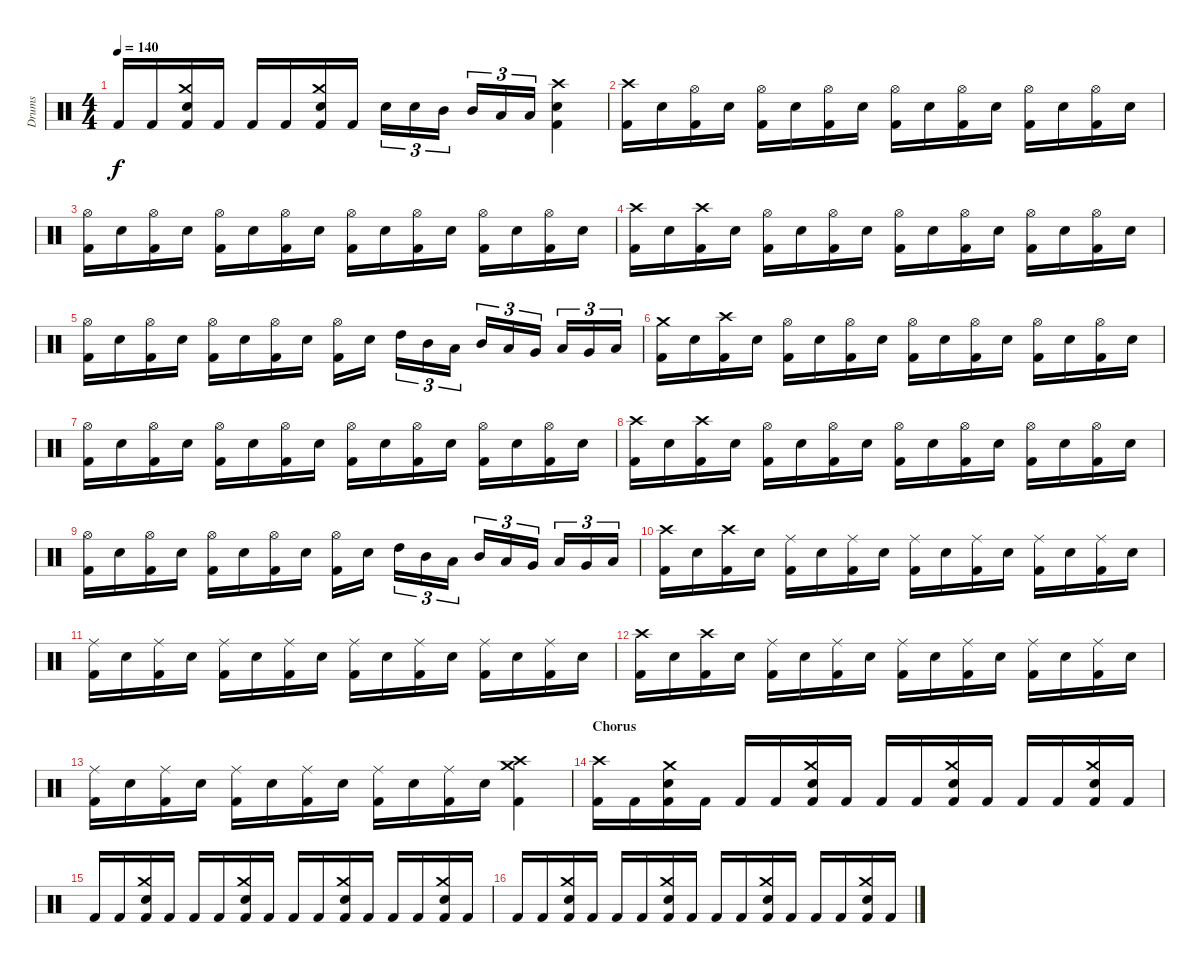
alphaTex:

\track ("Drums" "Drums") {instrument percussion}
\staff {score}
\articulation defaults
\ts (4 4)
\tempo 140
\clef neutral
\ks c "Kick (hit) 2".16{dy f} "Kick (hit) 2".16
("Crash medium (hit)" "Electric Snare (hit)" "Kick (hit) 2").16 "Kick (hit) 2".16 "Kick (hit) 2".16 "Kick (hit) 2".16 ("Crash medium (hit)" "Electric Snare (hit)" "Kick (hit) 2").16 "Kick (hit) 2".16 "Electric Snare (hit)".16{tu (3 2)} "Electric Snare (hit)".16{tu (3 2)} "Mid Tom (hit)".16{tu (3 2)} "Mid Tom (hit)".16{tu (3 2)} "Low Tom (hit)".16{tu (3 2)} "Low Tom (hit)".16{tu (3 2)} ("Crash high (hit)" "Electric Snare (hit)" "Kick (hit) 2").4 |
("Crash high (hit)" "Kick (hit) 2").16 "Electric Snare (hit)".16 ("Hi-Hat (open)" "Kick (hit) 2").16 "Electric Snare (hit)".16 ("Hi-Hat (open)" "Kick (hit) 2").16 "Electric Snare (hit)".16 ("Hi-Hat (open)" "Kick (hit) 2").16 "Electric Snare (hit)".16 ("Hi-Hat (open)" "Kick (hit) 2").16 "Electric Snare (hit)".16 ("Hi-Hat (open)" "Kick (hit) 2").16 "Electric Snare (hit)".16 ("Hi-Hat (open)" "Kick (hit) 2").16 "Electric Snare (hit)".16 ("Hi-Hat (open)" "Kick (hit) 2").16 "Electric Snare (hit)".16 |
("Hi-Hat (open)" "Kick (hit) 2").16 "Electric Snare (hit)".16 ("Hi-Hat (open)" "Kick (hit) 2").16 "Electric Snare (hit)".16 ("Hi-Hat (open)" "Kick (hit) 2").16 "Electric Snare (hit)".16 ("Hi-Hat (open)" "Kick (hit) 2").16 "Electric Snare (hit)".16 ("Hi-Hat (open)" "Kick (hit) 2").16 "Electric Snare (hit)".16 ("Hi-Hat (open)" "Kick (hit) 2").16 "Electric Snare (hit)".16 ("Hi-Hat (open)" "Kick (hit) 2").16 "Electric Snare (hit)".16 ("Hi-Hat (open)" "Kick (hit) 2").16 "Electric Snare (hit)".16 |
("Crash high (hit)" "Kick (hit) 2").16 "Electric Snare (hit)".16 ("Crash high (hit)" "Kick (hit) 2").16 "Electric Snare (hit)".16 ("Hi-Hat (open)" "Kick (hit) 2").16 "Electric Snare (hit)".16 ("Hi-Hat (open)" "Kick (hit) 2").16 "Electric Snare (hit)".16 ("Hi-Hat (open)" "Kick (hit) 2").16 "Electric Snare (hit)".16 ("Hi-Hat (open)" "Kick (hit) 2").16 "Electric Snare (hit)".16 ("Hi-Hat (open)" "Kick (hit) 2").16 "Electric Snare (hit)".16 ("Hi-Hat (open)" "Kick (hit) 2").16 "Electric Snare (hit)".16 |
("Hi-Hat (open)" "Kick (hit) 2").16 "Electric Snare (hit)".16 ("Hi-Hat (open)" "Kick (hit) 2").16 "Electric Snare (hit)".16 ("Hi-Hat (open)" "Kick (hit) 2").16 "Electric Snare (hit)".16 ("Hi-Hat (open)" "Kick (hit) 2").16 "Electric Snare (hit)".16 ("Hi-Hat (open)" "Kick (hit) 2").16 "Electric Snare (hit)".16 "High Tom (hit)".16{tu (3 2)} "Mid Tom (hit)".16{tu (3 2)} "Low Tom (hit)".16{tu (3 2)} "Mid Tom (hit)".16{tu (3 2)} "Low Tom (hit)".16{tu (3 2)} "Very Low Tom (hit)".16{tu (3 2)} "Low Tom (hit)".16{tu (3 2)} "Very Low Tom (hit)".16{tu (3 2)} "Low Floor Tom (hit)".16{tu (3 2)} |
("Crash medium (hit)" "Kick (hit) 2").16 "Electric Snare (hit)".16 ("Crash high (hit)" "Kick (hit) 2").16 "Electric Snare (hit)".16 ("Hi-Hat (open)" "Kick (hit) 2").16 "Electric Snare (hit)".16 ("Hi-Hat (open)" "Kick (hit) 2").16 "Electric Snare (hit)".16 ("Hi-Hat (open)" "Kick (hit) 2").16 "Electric Snare (hit)".16 ("Hi-Hat (open)" "Kick (hit) 2").16 "Electric Snare (hit)".16 ("Hi-Hat (open)" "Kick (hit) 2").16 "Electric Snare (hit)".16 ("Hi-Hat (open)" "Kick (hit) 2").16 "Electric Snare (hit)".16 |
("Hi-Hat (open)" "Kick (hit) 2").16 "Electric Snare (hit)".16 ("Hi-Hat (open)" "Kick (hit) 2").16 "Electric Snare (hit)".16 ("Hi-Hat (open)" "Kick (hit) 2").16 "Electric Snare (hit)".16 ("Hi-Hat (open)" "Kick (hit) 2").16 "Electric Snare (hit)".16 ("Hi-Hat (open)" "Kick (hit) 2").16 "Electric Snare (hit)".16 ("Hi-Hat (open)" "Kick (hit) 2").16 "Electric Snare (hit)".16 ("Hi-Hat (open)" "Kick (hit) 2").16 "Electric Snare (hit)".16 ("Hi-Hat (open)" "Kick (hit) 2").16 "Electric Snare (hit)".16 |
("Crash high (hit)" "Kick (hit) 2").16 "Electric Snare (hit)".16 ("Crash high (hit)" "Kick (hit) 2").16 "Electric Snare (hit)".16 ("Hi-Hat (open)" "Kick (hit) 2").16 "Electric Snare (hit)".16 ("Hi-Hat (open)" "Kick (hit) 2").16 "Electric Snare (hit)".16 ("Hi-Hat (open)" "Kick (hit) 2").16 "Electric Snare (hit)".16 ("Hi-Hat (open)" "Kick (hit) 2").16 "Electric Snare (hit)".16 ("Hi-Hat (open)" "Kick (hit) 2").16 "Electric Snare (hit)".16 ("Hi-Hat (open)" "Kick (hit) 2").16 "Electric Snare (hit)".16 |
("Hi-Hat (open)" "Kick (hit) 2").16 "Electric Snare (hit)".16 ("Hi-Hat (open)" "Kick (hit) 2").16 "Electric Snare (hit)".16 ("Hi-Hat (open)" "Kick (hit) 2").16 "Electric Snare (hit)".16 ("Hi-Hat (open)" "Kick (hit) 2").16 "Electric Snare (hit)".16 ("Hi-Hat (open)" "Kick (hit) 2").16 "Electric Snare (hit)".16 "High Tom (hit)".16{tu (3 2)} "Mid Tom (hit)".16{tu (3 2)} "Low Tom (hit)".16{tu (3 2)} "Mid Tom (hit)".16{tu (3 2)} "Low Tom (hit)".16{tu (3 2)} "Very Low Tom (hit)".16{tu (3 2)} "Low Tom (hit)".16{tu (3 2)} "Very Low Tom (hit)".16{tu (3 2)} "Low Floor Tom (hit)".16{tu (3 2)} |
("Crash high (hit)" "Kick (hit) 2").16 "Electric Snare (hit)".16 ("Crash high (hit)" "Kick (hit) 2").16 "Electric Snare (hit)".16 ("Ride (middle)" "Kick (hit) 2").16 "Electric Snare (hit)".16 ("Ride (middle)" "Kick (hit) 2").16 "Electric Snare (hit)".16 ("Ride (middle)" "Kick (hit) 2").16 "Electric Snare (hit)".16 ("Ride (middle)" "Kick (hit) 2").16 "Electric Snare (hit)".16 ("Ride (middle)" "Kick (hit) 2").16 "Electric Snare (hit)".16 ("Ride (middle)" "Kick (hit) 2").16 "Electric Snare (hit)".16 |
("Ride (middle)" "Kick (hit) 2").16 "Electric Snare (hit)".16 ("Ride (middle)" "Kick (hit) 2").16 "Electric Snare (hit)".16 ("Ride (middle)" "Kick (hit) 2").16 "Electric Snare (hit)".16 ("Ride (middle)" "Kick (hit) 2").16 "Electric Snare (hit)".16 ("Ride (middle)" "Kick (hit) 2").16 "Electric Snare (hit)".16 ("Ride (middle)" "Kick (hit) 2").16 "Electric Snare (hit)".16 ("Ride (middle)" "Kick (hit) 2").16 "Electric Snare (hit)".16 ("Ride (middle)" "Kick (hit) 2").16 "Electric Snare (hit)".16 |
("Crash high (hit)" "Kick (hit) 2").16 "Electric Snare (hit)".16 ("Crash high (hit)" "Kick (hit) 2").16 "Electric Snare (hit)".16 ("Ride (middle)" "Kick (hit) 2").16 "Electric Snare (hit)".16 ("Ride (middle)" "Kick (hit) 2").16 "Electric Snare (hit)".16 ("Ride (middle)" "Kick (hit) 2").16 "Electric Snare (hit)".16 ("Ride (middle)" "Kick (hit) 2").16 "Electric Snare (hit)".16 ("Ride (middle)" "Kick (hit) 2").16 "Electric Snare (hit)".16 ("Ride (middle)" "Kick (hit) 2").16 "Electric Snare (hit)".16 |
("Ride (middle)" "Kick (hit) 2").16 "Electric Snare (hit)".16 ("Ride (middle)" "Kick (hit) 2").16 "Electric Snare (hit)".16 ("Ride (middle)" "Kick (hit) 2").16 "Electric Snare (hit)".16 ("Ride (middle)" "Kick (hit) 2").16 "Electric Snare (hit)".16 ("Ride (middle)" "Kick (hit) 2").16 "Electric Snare (hit)".16 ("Ride (middle)" "Kick (hit) 2").16 "Electric Snare (hit)".16 ("Crash high (hit)" "Crash medium (hit)" "Kick (hit) 2").4 |
\section ("" "Chorus")
("Crash high (hit)" "Kick (hit) 2").16 "Kick (hit) 2".16 ("Crash medium (hit)" "Electric Snare (hit)" "Kick (hit) 2").16 "Kick (hit) 2".16 "Kick (hit) 2".16 "Kick (hit) 2".16 ("Crash medium (hit)" "Electric Snare (hit)" "Kick (hit) 2").16 "Kick (hit) 2".16 "Kick (hit) 2".16 "Kick (hit) 2".16 ("Crash medium (hit)" "Electric Snare (hit)" "Kick (hit) 2").16 "Kick (hit) 2".16 "Kick (hit) 2".16 "Kick (hit) 2".16 ("Crash medium (hit)" "Electric Snare (hit)" "Kick (hit) 2").16 "Kick (hit) 2".16 |
"Kick (hit) 2".16 "Kick (hit) 2".16 ("Crash medium (hit)" "Electric Snare (hit)" "Kick (hit) 2").16 "Kick (hit) 2".16 "Kick (hit) 2".16 "Kick (hit) 2".16 ("Crash medium (hit)" "Electric Snare (hit)" "Kick (hit) 2").16 "Kick (hit) 2".16 "Kick (hit) 2".16 "Kick (hit) 2".16 ("Crash medium (hit)" "Electric Snare (hit)" "Kick (hit) 2").16 "Kick (hit) 2".16 "Kick (hit) 2".16 "Kick (hit) 2".16 ("Crash medium (hit)" "Electric Snare (hit)" "Kick (hit) 2").16 "Kick (hit) 2".16 |
"Kick (hit) 2".16 "Kick (hit) 2".16 ("Crash medium (hit)" "Electric Snare (hit)" "Kick (hit) 2").16 "Kick (hit) 2".16 "Kick (hit) 2".16 "Kick (hit) 2".16 ("Crash medium (hit)" "Electric Snare (hit)" "Kick (hit) 2").16 "Kick (hit) 2".16 "Kick (hit) 2".16 "Kick (hit) 2".16 ("Crash medium (hit)" "Electric Snare (hit)" "Kick (hit) 2").16 "Kick (hit) 2".16 "Kick (hit) 2".16 "Kick (hit) 2".16 ("Crash medium (hit)" "Electric Snare (hit)" "Kick (hit) 2").16 "Kick (hit) 2".16
